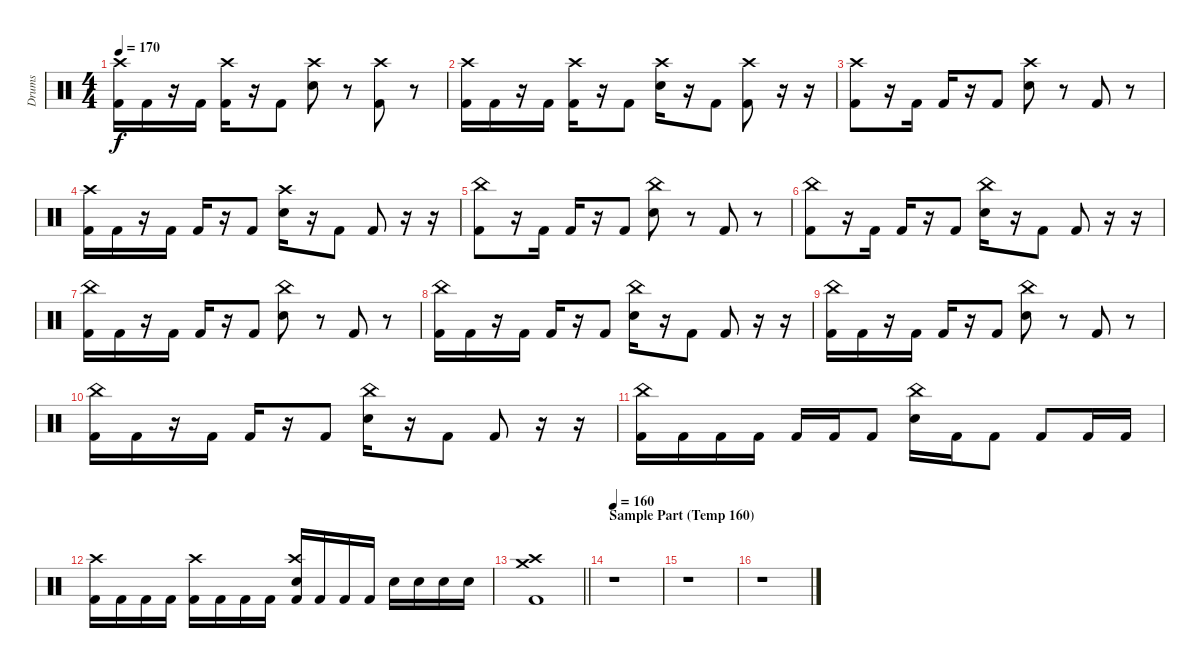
\track ("Drums" "Drums") {instrument percussion}
\staff {score}
\articulation defaults
\ts (4 4)
\tempo 170
\clef neutral
\ks c
("Kick (hit) 2" "Crash high (hit)").16{dy f} "Kick (hit) 2".16 r.16 "Kick (hit) 2".16 ("Kick (hit) 2" "Crash high (hit)").16 r.16 "Kick (hit) 2".8 ("Electric Snare (hit)" "Crash high (hit)").8 r.8 ("Kick (hit) 2" "Crash high (hit)").8 r.8 |
("Kick (hit) 2" "Crash high (hit)").16 "Kick (hit) 2".16 r.16 "Kick (hit) 2".16 ("Kick (hit) 2" "Crash high (hit)").16 r.16 "Kick (hit) 2".8 ("Electric Snare (hit)" "Crash high (hit)").16 r.16 "Kick (hit) 2".8 ("Kick (hit) 2" "Crash high (hit)").8 r.16 r.16 |
("Kick (hit) 2" "Crash high (hit)").8 r.16 "Kick (hit) 2".16 "Kick (hit) 2".16 r.16 "Kick (hit) 2".8 ("Electric Snare (hit)" "Crash high (hit)").8 r.8 "Kick (hit) 2".8 r.8 |
("Kick (hit) 2" "Crash high (hit)").16 "Kick (hit) 2".16 r.16 "Kick (hit) 2".16 "Kick (hit) 2".16 r.16 "Kick (hit) 2".8 ("Electric Snare (hit)" "Crash high (hit)").16 r.16 "Kick (hit) 2".8 "Kick (hit) 2".8 r.16 r.16 |
("Kick (hit) 2" "China (hit)").8 r.16 "Kick (hit) 2".16 "Kick (hit) 2".16 r.16 "Kick (hit) 2".8 ("Electric Snare (hit)" "China (hit)").8 r.8 "Kick (hit) 2".8 r.8 |
("Kick (hit) 2" "China (hit)").8 r.16 "Kick (hit) 2".16 "Kick (hit) 2".16 r.16 "Kick (hit) 2".8 ("Electric Snare (hit)" "China (hit)").16 r.16 "Kick (hit) 2".8 "Kick (hit) 2".8 r.16 r.16 |
("Kick (hit) 2" "China (hit)").16 "Kick (hit) 2".16 r.16 "Kick (hit) 2".16 "Kick (hit) 2".16 r.16 "Kick (hit) 2".8 ("Electric Snare (hit)" "China (hit)").8 r.8 "Kick (hit) 2".8 r.8 |
("Kick (hit) 2" "China (hit)").16 "Kick (hit) 2".16 r.16 "Kick (hit) 2".16 "Kick (hit) 2".16 r.16 "Kick (hit) 2".8 ("Electric Snare (hit)" "China (hit)").16 r.16 "Kick (hit) 2".8 "Kick (hit) 2".8 r.16 r.16 |
("Kick (hit) 2" "China (hit)").16 "Kick (hit) 2".16 r.16 "Kick (hit) 2".16 "Kick (hit) 2".16 r.16 "Kick (hit) 2".8 ("Electric Snare (hit)" "China (hit)").8 r.8 "Kick (hit) 2".8 r.8 |
("Kick (hit) 2" "China (hit)").16 "Kick (hit) 2".16 r.16 "Kick (hit) 2".16 "Kick (hit) 2".16 r.16 "Kick (hit) 2".8 ("Electric Snare (hit)" "China (hit)").16 r.16 "Kick (hit) 2".8 "Kick (hit) 2".8 r.16 r.16 |
("Kick (hit) 2" "China (hit)").16 "Kick (hit) 2".16 "Kick (hit) 2".16 "Kick (hit) 2".16 "Kick (hit) 2".16 "Kick (hit) 2".16 "Kick (hit) 2".8 ("Electric Snare (hit)" "China (hit)").16 "Kick (hit) 2".16 "Kick (hit) 2".8 "Kick (hit) 2".8 "Kick (hit) 2".16 "Kick (hit) 2".16 |
("Kick (hit) 2" "Crash high (hit)").16 "Kick (hit) 2".16 "Kick (hit) 2".16 "Kick (hit) 2".16 ("Kick (hit) 2" "Crash high (hit)").16 "Kick (hit) 2".16 "Kick (hit) 2".16 "Kick (hit) 2".16 ("Electric Snare (hit)" "Kick (hit) 2" "Crash high (hit)").16 "Kick (hit) 2".16 "Kick (hit) 2".16 "Kick (hit) 2".16 "Electric Snare (hit)".16 "Electric Snare (hit)".16 "Electric Snare (hit)".16 "Electric Snare (hit)".16 |
\barLineRight lightlight
("Crash high (hit)" "Kick (hit) 2" "Crash medium (hit)").1 |
\section ("" "Sample Part (Temp 160)")
\tempo 160
r.1 |
r.1 |
r.1
